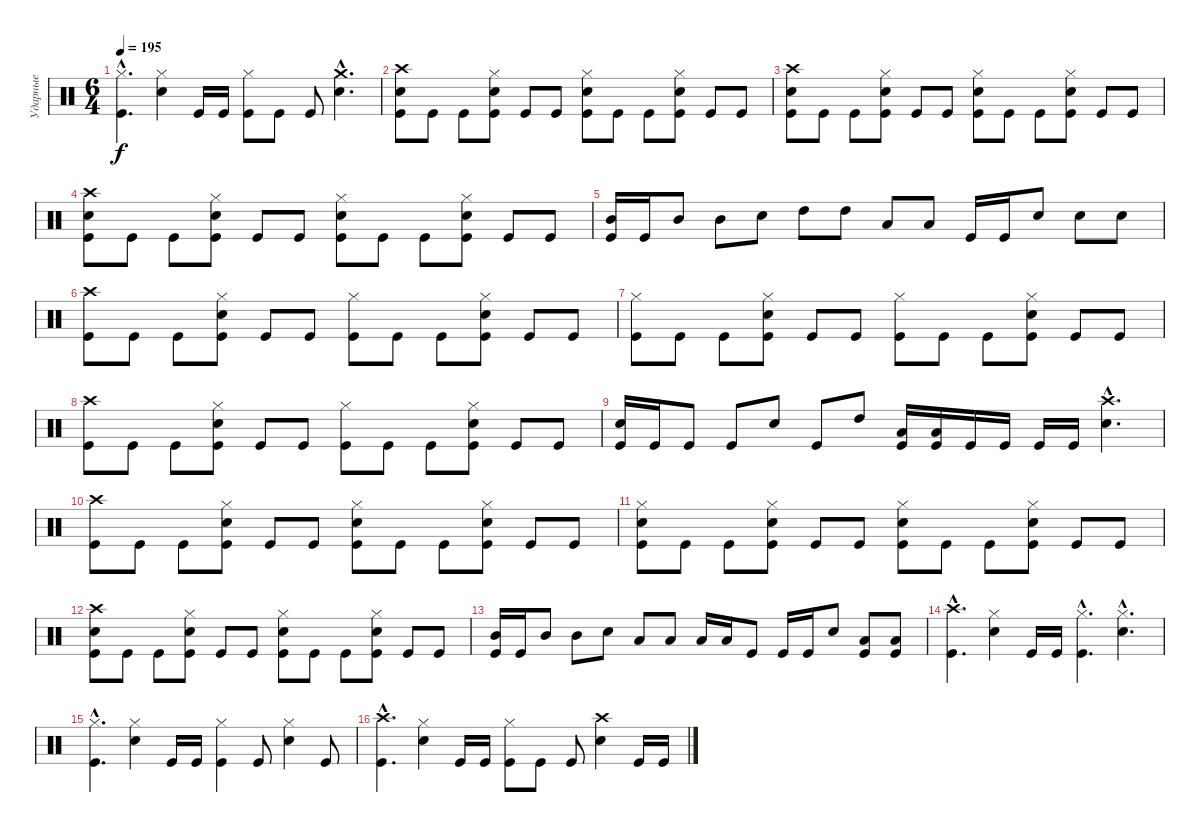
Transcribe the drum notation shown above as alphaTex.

\track ("Ударные" "Ударные") {instrument percussion}
\staff {score}
\articulation defaults
\ts (6 4)
\tempo 195
\clef neutral
\ks c
("Hi-Hat (closed)"{hac} "Kick (hit)"{hac}).4{d dy f} ("Hi-Hat (closed)" "Electric Snare (hit)").4 "Kick (hit)".16 "Kick (hit)".16 ("Hi-Hat (closed)" "Kick (hit)").8 "Kick (hit)".8 "Kick (hit)".8 ("Crash medium (hit)"{hac} "Electric Snare (hit)"{hac}).4{d} |
("Crash high (hit)" "Electric Snare (hit)" "Kick (hit)").8 "Kick (hit)".8 "Kick (hit)".8 ("Hi-Hat (closed)" "Electric Snare (hit)" "Kick (hit)").8 "Kick (hit)".8 "Kick (hit)".8 ("Hi-Hat (closed)" "Electric Snare (hit)" "Kick (hit)").8 "Kick (hit)".8 "Kick (hit)".8 ("Hi-Hat (closed)" "Electric Snare (hit)" "Kick (hit)").8 "Kick (hit)".8 "Kick (hit)".8 |
("Crash high (hit)" "Electric Snare (hit)" "Kick (hit)").8 "Kick (hit)".8 "Kick (hit)".8 ("Hi-Hat (closed)" "Electric Snare (hit)" "Kick (hit)").8 "Kick (hit)".8 "Kick (hit)".8 ("Hi-Hat (closed)" "Electric Snare (hit)" "Kick (hit)").8 "Kick (hit)".8 "Kick (hit)".8 ("Hi-Hat (closed)" "Electric Snare (hit)" "Kick (hit)").8 "Kick (hit)".8 "Kick (hit)".8 |
("Crash high (hit)" "Electric Snare (hit)" "Kick (hit)").8 "Kick (hit)".8 "Kick (hit)".8 ("Hi-Hat (closed)" "Electric Snare (hit)" "Kick (hit)").8 "Kick (hit)".8 "Kick (hit)".8 ("Hi-Hat (closed)" "Electric Snare (hit)" "Kick (hit)").8 "Kick (hit)".8 "Kick (hit)".8 ("Hi-Hat (closed)" "Electric Snare (hit)" "Kick (hit)").8 "Kick (hit)".8 "Kick (hit)".8 |
("Mid Tom (hit)" "Kick (hit)").16 "Kick (hit)".16 "Mid Tom (hit)".8 "Mid Tom (hit)".8 "Electric Snare (hit)".8 "High Tom (hit)".8 "High Tom (hit)".8 "Low Tom (hit)".8 "Low Tom (hit)".8 "Kick (hit)".16 "Kick (hit)".16 "Electric Snare (hit)".8 "Electric Snare (hit)".8 "Electric Snare (hit)".8 |
("Crash high (hit)" "Kick (hit)").8 "Kick (hit)".8 "Kick (hit)".8 ("Hi-Hat (closed)" "Electric Snare (hit)" "Kick (hit)").8 "Kick (hit)".8 "Kick (hit)".8 ("Hi-Hat (closed)" "Kick (hit)").8 "Kick (hit)".8 "Kick (hit)".8 ("Hi-Hat (closed)" "Electric Snare (hit)" "Kick (hit)").8 "Kick (hit)".8 "Kick (hit)".8 |
("Hi-Hat (closed)" "Kick (hit)").8 "Kick (hit)".8 "Kick (hit)".8 ("Hi-Hat (closed)" "Electric Snare (hit)" "Kick (hit)").8 "Kick (hit)".8 "Kick (hit)".8 ("Hi-Hat (closed)" "Kick (hit)").8 "Kick (hit)".8 "Kick (hit)".8 ("Hi-Hat (closed)" "Electric Snare (hit)" "Kick (hit)").8 "Kick (hit)".8 "Kick (hit)".8 |
("Crash high (hit)" "Kick (hit)").8 "Kick (hit)".8 "Kick (hit)".8 ("Hi-Hat (closed)" "Electric Snare (hit)" "Kick (hit)").8 "Kick (hit)".8 "Kick (hit)".8 ("Hi-Hat (closed)" "Kick (hit)").8 "Kick (hit)".8 "Kick (hit)".8 ("Hi-Hat (closed)" "Electric Snare (hit)" "Kick (hit)").8 "Kick (hit)".8 "Kick (hit)".8 |
("Electric Snare (hit)" "Kick (hit)").16 "Kick (hit)".16 "Kick (hit)".8 "Kick (hit)".8 "Electric Snare (hit)".8 "Kick (hit)".8 "High Tom (hit)".8 ("Low Tom (hit)" "Kick (hit)").16 ("Low Tom (hit)" "Kick (hit)").16 "Kick (hit)".16 "Kick (hit)".16 "Kick (hit)".16 "Kick (hit)".16 ("Crash high (hit)"{hac} "Electric Snare (hit)"{hac}).4{d} |
("Crash high (hit)" "Kick (hit)").8 "Kick (hit)".8 "Kick (hit)".8 ("Hi-Hat (closed)" "Electric Snare (hit)" "Kick (hit)").8 "Kick (hit)".8 "Kick (hit)".8 ("Hi-Hat (closed)" "Electric Snare (hit)" "Kick (hit)").8 "Kick (hit)".8 "Kick (hit)".8 ("Hi-Hat (closed)" "Electric Snare (hit)" "Kick (hit)").8 "Kick (hit)".8 "Kick (hit)".8 |
("Hi-Hat (closed)" "Electric Snare (hit)" "Kick (hit)").8 "Kick (hit)".8 "Kick (hit)".8 ("Hi-Hat (closed)" "Electric Snare (hit)" "Kick (hit)").8 "Kick (hit)".8 "Kick (hit)".8 ("Hi-Hat (closed)" "Electric Snare (hit)" "Kick (hit)").8 "Kick (hit)".8 "Kick (hit)".8 ("Hi-Hat (closed)" "Electric Snare (hit)" "Kick (hit)").8 "Kick (hit)".8 "Kick (hit)".8 |
("Crash high (hit)" "Electric Snare (hit)" "Kick (hit)").8 "Kick (hit)".8 "Kick (hit)".8 ("Hi-Hat (closed)" "Electric Snare (hit)" "Kick (hit)").8 "Kick (hit)".8 "Kick (hit)".8 ("Hi-Hat (closed)" "Electric Snare (hit)" "Kick (hit)").8 "Kick (hit)".8 "Kick (hit)".8 ("Hi-Hat (closed)" "Electric Snare (hit)" "Kick (hit)").8 "Kick (hit)".8 "Kick (hit)".8 |
("Mid Tom (hit)" "Kick (hit)").16 "Kick (hit)".16 "Mid Tom (hit)".8 "Mid Tom (hit)".8 "Electric Snare (hit)".8 "Low Tom (hit)".8 "Low Tom (hit)".8 "Low Tom (hit)".16 "Low Tom (hit)".16 "Kick (hit)".8 "Kick (hit)".16 "Kick (hit)".16 "Electric Snare (hit)".8 ("Low Tom (hit)" "Kick (hit)").8 ("Low Tom (hit)" "Kick (hit)").8 |
("Crash high (hit)"{hac} "Kick (hit)"{hac}).4{d} ("Hi-Hat (closed)" "Electric Snare (hit)").4 "Kick (hit)".16 "Kick (hit)".16 ("Hi-Hat (closed)"{hac} "Kick (hit)"{hac}).4{d} ("Hi-Hat (closed)"{hac} "Electric Snare (hit)"{hac}).4{d} |
("Hi-Hat (closed)"{hac} "Kick (hit)"{hac}).4{d} ("Hi-Hat (closed)" "Electric Snare (hit)").4 "Kick (hit)".16 "Kick (hit)".16 ("Hi-Hat (closed)" "Kick (hit)").4 "Kick (hit)".8 ("Hi-Hat (closed)" "Electric Snare (hit)").4 "Kick (hit)".8 |
("Crash high (hit)"{hac} "Kick (hit)"{hac}).4{d} ("Hi-Hat (closed)" "Electric Snare (hit)").4 "Kick (hit)".16 "Kick (hit)".16 ("Hi-Hat (closed)" "Kick (hit)").8 "Kick (hit)".8 "Kick (hit)".8 ("Crash high (hit)" "Electric Snare (hit)").4 "Kick (hit)".16 "Kick (hit)".16
